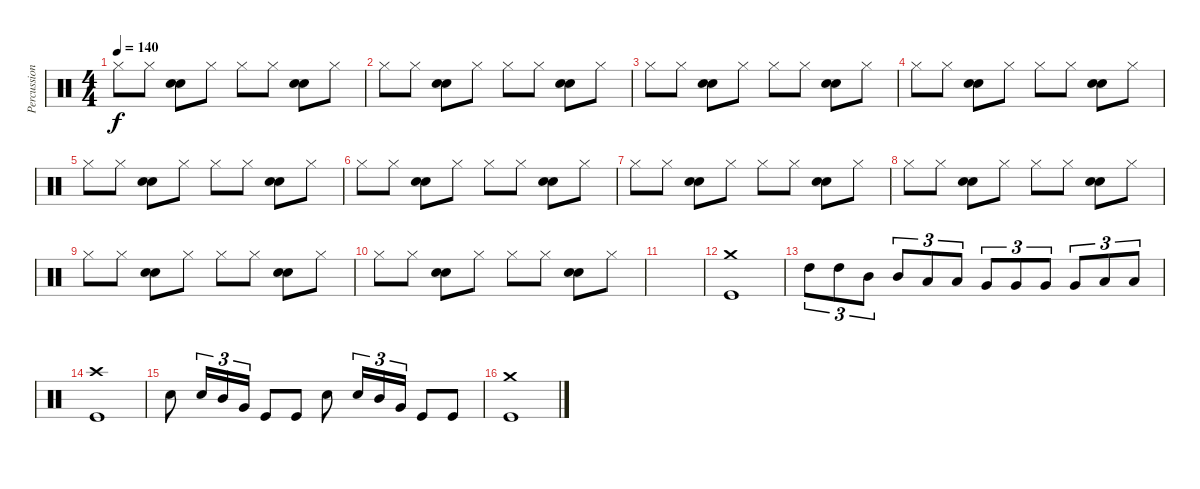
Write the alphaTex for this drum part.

\track ("Percussions" "Percussion") {instrument percussion}
\staff {score}
\articulation defaults
\ts (4 4)
\tempo 140
\clef neutral
\ks c "Hi-Hat (closed)".8{dy f} "Hi-Hat (closed)".8
("Snare (hit) 2" "Electric Snare (hit)").8 "Hi-Hat (closed)".8 "Hi-Hat (closed)".8 "Hi-Hat (closed)".8 ("Snare (hit) 2" "Electric Snare (hit)").8 "Hi-Hat (closed)".8 |
"Hi-Hat (closed)".8 "Hi-Hat (closed)".8 ("Snare (hit) 2" "Electric Snare (hit)").8 "Hi-Hat (closed)".8 "Hi-Hat (closed)".8 "Hi-Hat (closed)".8 ("Snare (hit) 2" "Electric Snare (hit)").8 "Hi-Hat (closed)".8 |
"Hi-Hat (closed)".8 "Hi-Hat (closed)".8 ("Snare (hit) 2" "Electric Snare (hit)").8 "Hi-Hat (closed)".8 "Hi-Hat (closed)".8 "Hi-Hat (closed)".8 ("Snare (hit) 2" "Electric Snare (hit)").8 "Hi-Hat (closed)".8 |
"Hi-Hat (closed)".8 "Hi-Hat (closed)".8 ("Snare (hit) 2" "Electric Snare (hit)").8 "Hi-Hat (closed)".8 "Hi-Hat (closed)".8 "Hi-Hat (closed)".8 ("Snare (hit) 2" "Electric Snare (hit)").8 "Hi-Hat (closed)".8 |
"Hi-Hat (closed)".8 "Hi-Hat (closed)".8 ("Snare (hit) 2" "Electric Snare (hit)").8 "Hi-Hat (closed)".8 "Hi-Hat (closed)".8 "Hi-Hat (closed)".8 ("Snare (hit) 2" "Electric Snare (hit)").8 "Hi-Hat (closed)".8 |
"Hi-Hat (closed)".8 "Hi-Hat (closed)".8 ("Snare (hit) 2" "Electric Snare (hit)").8 "Hi-Hat (closed)".8 "Hi-Hat (closed)".8 "Hi-Hat (closed)".8 ("Snare (hit) 2" "Electric Snare (hit)").8 "Hi-Hat (closed)".8 |
"Hi-Hat (closed)".8 "Hi-Hat (closed)".8 ("Snare (hit) 2" "Electric Snare (hit)").8 "Hi-Hat (closed)".8 "Hi-Hat (closed)".8 "Hi-Hat (closed)".8 ("Snare (hit) 2" "Electric Snare (hit)").8 "Hi-Hat (closed)".8 |
"Hi-Hat (closed)".8 "Hi-Hat (closed)".8 ("Snare (hit) 2" "Electric Snare (hit)").8 "Hi-Hat (closed)".8 "Hi-Hat (closed)".8 "Hi-Hat (closed)".8 ("Snare (hit) 2" "Electric Snare (hit)").8 "Hi-Hat (closed)".8 |
"Hi-Hat (closed)".8 "Hi-Hat (closed)".8 ("Snare (hit) 2" "Electric Snare (hit)").8 "Hi-Hat (closed)".8 "Hi-Hat (closed)".8 "Hi-Hat (closed)".8 ("Snare (hit) 2" "Electric Snare (hit)").8 "Hi-Hat (closed)".8 |
"Hi-Hat (closed)".8 "Hi-Hat (closed)".8 ("Snare (hit) 2" "Electric Snare (hit)").8 "Hi-Hat (closed)".8 "Hi-Hat (closed)".8 "Hi-Hat (closed)".8 ("Snare (hit) 2" "Electric Snare (hit)").8 "Hi-Hat (closed)".8 |
|
("Crash medium (hit)" "Kick (hit)").1 |
"High Tom (hit)".8{tu (3 2)} "High Tom (hit)".8{tu (3 2)} "Mid Tom (hit)".8{tu (3 2)} "Mid Tom (hit)".8{tu (3 2)} "Low Tom (hit)".8{tu (3 2)} "Low Tom (hit)".8{tu (3 2)} "Very Low Tom (hit)".8{tu (3 2)} "Very Low Tom (hit)".8{tu (3 2)} "Very Low Tom (hit)".8{tu (3 2)} "Very Low Tom (hit)".8{tu (3 2)} "Low Floor Tom (hit)".8{tu (3 2)} "Low Floor Tom (hit)".8{tu (3 2)} |
("Crash high (hit)" "Kick (hit)").1 |
"Snare (hit) 2".8 "Snare (hit) 2".16{tu (3 2)} "Mid Tom (hit)".16{tu (3 2)} "Very Low Tom (hit)".16{tu (3 2)} "Kick (hit)".8 "Kick (hit)".8 "Snare (hit) 2".8 "Snare (hit) 2".16{tu (3 2)} "Mid Tom (hit)".16{tu (3 2)} "Very Low Tom (hit)".16{tu (3 2)} "Kick (hit)".8 "Kick (hit)".8 |
("Crash medium (hit)" "Kick (hit)").1
